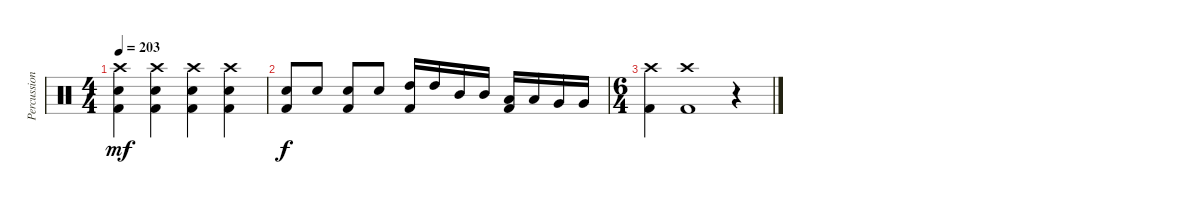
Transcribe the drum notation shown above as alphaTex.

\track ("Percussion" "Percussion") {instrument percussion}
\staff {score}
\articulation defaults
\ts (4 4)
\tempo 203
\clef neutral
\ks c
("Crash high (hit)" "Electric Snare (hit)" "Kick (hit) 2").4{dy mf} ("Crash high (hit)" "Electric Snare (hit)" "Kick (hit) 2").4 ("Crash high (hit)" "Electric Snare (hit)" "Kick (hit) 2").4 ("Crash high (hit)" "Electric Snare (hit)" "Kick (hit) 2").4 |
("Electric Snare (hit)" "Kick (hit) 2").8{dy f} "Electric Snare (hit)".8 ("Electric Snare (hit)" "Kick (hit) 2").8 "Electric Snare (hit)".8 ("High Tom (hit)" "Kick (hit) 2").16 "High Tom (hit)".16 "Mid Tom (hit)".16 "Mid Tom (hit)".16 ("Low Tom (hit)" "Kick (hit) 2").16 "Low Tom (hit)".16 "Very Low Tom (hit)".16 "Very Low Tom (hit)".16 |
\ts (6 4)
("Crash high (hit)" "Kick (hit) 2").4 ("Crash high (hit)" "Kick (hit) 2").1 r.4
